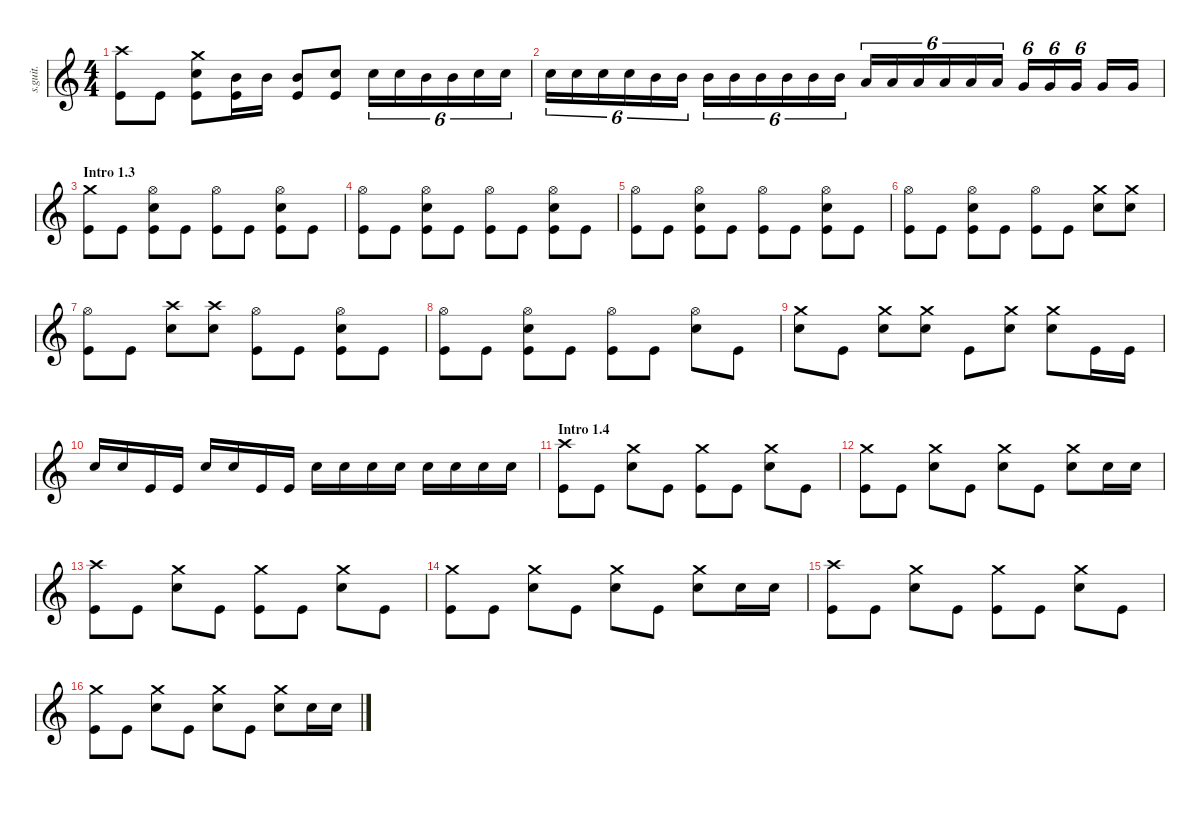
\defaultSystemsLayout 4
\hideDynamics
\bracketExtendMode nobrackets
\track ("Joey Jordison" "s.guit.") {instrument percussion}
\staff {score}
\articulation defaults
\ts (4 4)
\tempo (192 hide)
\clef g2
\ks c
("Kick (hit)" "Crash high (hit)").8{lyrics (0 "") lyrics (1 "") lyrics (2 "") lyrics (3 "") lyrics (4 "") dy ff} "Kick (hit)".8{lyrics (0 "") lyrics (1 "") lyrics (2 "") lyrics (3 "") lyrics (4 "")} ("Snare (hit) 2" "Crash medium (hit)" "Kick (hit)").8{lyrics (0 "") lyrics (1 "") lyrics (2 "") lyrics (3 "") lyrics (4 "")} ("Mid Tom (hit)" "Kick (hit)").16{lyrics (0 "") lyrics (1 "") lyrics (2 "") lyrics (3 "") lyrics (4 "")} "Mid Tom (hit)".16{lyrics (0 "") lyrics (1 "") lyrics (2 "") lyrics (3 "") lyrics (4 "")} ("Mid Tom (hit)" "Kick (hit)").8{lyrics (0 "") lyrics (1 "") lyrics (2 "") lyrics (3 "") lyrics (4 "")} ("Kick (hit)" "Snare (hit) 2").8{lyrics (0 "") lyrics (1 "") lyrics (2 "") lyrics (3 "") lyrics (4 "")} "Snare (hit) 2".16{tu (6 4) lyrics (0 "") lyrics (1 "") lyrics (2 "") lyrics (3 "") lyrics (4 "")} "Snare (hit) 2".16{tu (6 4) lyrics (0 "") lyrics (1 "") lyrics (2 "") lyrics (3 "") lyrics (4 "")} "Mid Tom (hit)".16{tu (6 4) lyrics (0 "") lyrics (1 "") lyrics (2 "") lyrics (3 "") lyrics (4 "")} "Mid Tom (hit)".16{tu (6 4) lyrics (0 "") lyrics (1 "") lyrics (2 "") lyrics (3 "") lyrics (4 "")} "Snare (hit) 2".16{tu (6 4) lyrics (0 "") lyrics (1 "") lyrics (2 "") lyrics (3 "") lyrics (4 "")} "Snare (hit) 2".16{tu (6 4) lyrics (0 "") lyrics (1 "") lyrics (2 "") lyrics (3 "") lyrics (4 "")} |
"Snare (hit) 2".16{tu (6 4) lyrics (0 "") lyrics (1 "") lyrics (2 "") lyrics (3 "") lyrics (4 "")} "Snare (hit) 2".16{tu (6 4) lyrics (0 "") lyrics (1 "") lyrics (2 "") lyrics (3 "") lyrics (4 "")} "Snare (hit) 2".16{tu (6 4) lyrics (0 "") lyrics (1 "") lyrics (2 "") lyrics (3 "") lyrics (4 "")} "Snare (hit) 2".16{tu (6 4) lyrics (0 "") lyrics (1 "") lyrics (2 "") lyrics (3 "") lyrics (4 "")} "Mid Tom (hit)".16{tu (6 4) lyrics (0 "") lyrics (1 "") lyrics (2 "") lyrics (3 "") lyrics (4 "")} "Mid Tom (hit)".16{tu (6 4) lyrics (0 "") lyrics (1 "") lyrics (2 "") lyrics (3 "") lyrics (4 "")} "Mid Tom (hit)".16{tu (6 4) lyrics (0 "") lyrics (1 "") lyrics (2 "") lyrics (3 "") lyrics (4 "")} "Mid Tom (hit)".16{tu (6 4) lyrics (0 "") lyrics (1 "") lyrics (2 "") lyrics (3 "") lyrics (4 "")} "Mid Tom (hit)".16{tu (6 4) lyrics (0 "") lyrics (1 "") lyrics (2 "") lyrics (3 "") lyrics (4 "")} "Mid Tom (hit)".16{tu (6 4) lyrics (0 "") lyrics (1 "") lyrics (2 "") lyrics (3 "") lyrics (4 "")} "Mid Tom (hit)".16{tu (6 4) lyrics (0 "") lyrics (1 "") lyrics (2 "") lyrics (3 "") lyrics (4 "")} "Mid Tom (hit)".16{tu (6 4) lyrics (0 "") lyrics (1 "") lyrics (2 "") lyrics (3 "") lyrics (4 "")} "Low Tom (hit)".16{tu (6 4) lyrics (0 "") lyrics (1 "") lyrics (2 "") lyrics (3 "") lyrics (4 "")} "Low Tom (hit)".16{tu (6 4) lyrics (0 "") lyrics (1 "") lyrics (2 "") lyrics (3 "") lyrics (4 "")} "Low Tom (hit)".16{tu (6 4) lyrics (0 "") lyrics (1 "") lyrics (2 "") lyrics (3 "") lyrics (4 "")} "Low Tom (hit)".16{tu (6 4) lyrics (0 "") lyrics (1 "") lyrics (2 "") lyrics (3 "") lyrics (4 "")} "Low Tom (hit)".16{tu (6 4) lyrics (0 "") lyrics (1 "") lyrics (2 "") lyrics (3 "") lyrics (4 "")} "Low Tom (hit)".16{tu (6 4) lyrics (0 "") lyrics (1 "") lyrics (2 "") lyrics (3 "") lyrics (4 "")} "Very Low Tom (hit)".16{tu (6 4) lyrics (0 "") lyrics (1 "") lyrics (2 "") lyrics (3 "") lyrics (4 "")} "Very Low Tom (hit)".16{tu (6 4) lyrics (0 "") lyrics (1 "") lyrics (2 "") lyrics (3 "") lyrics (4 "")} "Very Low Tom (hit)".16{tu (6 4) lyrics (0 "") lyrics (1 "") lyrics (2 "") lyrics (3 "") lyrics (4 "")} "Very Low Tom (hit)".16{lyrics (0 "") lyrics (1 "") lyrics (2 "") lyrics (3 "") lyrics (4 "")} "Very Low Tom (hit)".16{lyrics (0 "") lyrics (1 "") lyrics (2 "") lyrics (3 "") lyrics (4 "")} |
\section ("" "Intro 1.3")
\tempo (195 hide)
("Crash medium (hit)" "Kick (hit)").8{lyrics (0 "") lyrics (1 "") lyrics (2 "") lyrics (3 "") lyrics (4 "")} "Kick (hit)".8{lyrics (0 "") lyrics (1 "") lyrics (2 "") lyrics (3 "") lyrics (4 "")} ("Hi-Hat (open)" "Snare (hit) 2" "Kick (hit)").8{lyrics (0 "") lyrics (1 "") lyrics (2 "") lyrics (3 "") lyrics (4 "")} "Kick (hit)".8{lyrics (0 "") lyrics (1 "") lyrics (2 "") lyrics (3 "") lyrics (4 "")} ("Hi-Hat (open)" "Kick (hit)").8{lyrics (0 "") lyrics (1 "") lyrics (2 "") lyrics (3 "") lyrics (4 "")} "Kick (hit)".8{lyrics (0 "") lyrics (1 "") lyrics (2 "") lyrics (3 "") lyrics (4 "")} ("Hi-Hat (open)" "Snare (hit) 2" "Kick (hit)").8{lyrics (0 "") lyrics (1 "") lyrics (2 "") lyrics (3 "") lyrics (4 "")} "Kick (hit)".8{lyrics (0 "") lyrics (1 "") lyrics (2 "") lyrics (3 "") lyrics (4 "")} |
("Hi-Hat (open)" "Kick (hit)").8{lyrics (0 "") lyrics (1 "") lyrics (2 "") lyrics (3 "") lyrics (4 "")} "Kick (hit)".8{lyrics (0 "") lyrics (1 "") lyrics (2 "") lyrics (3 "") lyrics (4 "")} ("Hi-Hat (open)" "Snare (hit) 2" "Kick (hit)").8{lyrics (0 "") lyrics (1 "") lyrics (2 "") lyrics (3 "") lyrics (4 "")} "Kick (hit)".8{lyrics (0 "") lyrics (1 "") lyrics (2 "") lyrics (3 "") lyrics (4 "")} ("Hi-Hat (open)" "Kick (hit)").8{lyrics (0 "") lyrics (1 "") lyrics (2 "") lyrics (3 "") lyrics (4 "")} "Kick (hit)".8{lyrics (0 "") lyrics (1 "") lyrics (2 "") lyrics (3 "") lyrics (4 "")} ("Hi-Hat (open)" "Snare (hit) 2" "Kick (hit)").8{lyrics (0 "") lyrics (1 "") lyrics (2 "") lyrics (3 "") lyrics (4 "")} "Kick (hit)".8{lyrics (0 "") lyrics (1 "") lyrics (2 "") lyrics (3 "") lyrics (4 "")} |
("Hi-Hat (open)" "Kick (hit)").8{lyrics (0 "") lyrics (1 "") lyrics (2 "") lyrics (3 "") lyrics (4 "")} "Kick (hit)".8{lyrics (0 "") lyrics (1 "") lyrics (2 "") lyrics (3 "") lyrics (4 "")} ("Hi-Hat (open)" "Snare (hit) 2" "Kick (hit)").8{lyrics (0 "") lyrics (1 "") lyrics (2 "") lyrics (3 "") lyrics (4 "")} "Kick (hit)".8{lyrics (0 "") lyrics (1 "") lyrics (2 "") lyrics (3 "") lyrics (4 "")} ("Hi-Hat (open)" "Kick (hit)").8{lyrics (0 "") lyrics (1 "") lyrics (2 "") lyrics (3 "") lyrics (4 "")} "Kick (hit)".8{lyrics (0 "") lyrics (1 "") lyrics (2 "") lyrics (3 "") lyrics (4 "")} ("Hi-Hat (open)" "Snare (hit) 2" "Kick (hit)").8{lyrics (0 "") lyrics (1 "") lyrics (2 "") lyrics (3 "") lyrics (4 "")} "Kick (hit)".8{lyrics (0 "") lyrics (1 "") lyrics (2 "") lyrics (3 "") lyrics (4 "")} |
\tempo (200 hide)
("Hi-Hat (open)" "Kick (hit)").8{lyrics (0 "") lyrics (1 "") lyrics (2 "") lyrics (3 "") lyrics (4 "")} "Kick (hit)".8{lyrics (0 "") lyrics (1 "") lyrics (2 "") lyrics (3 "") lyrics (4 "")} ("Hi-Hat (open)" "Snare (hit) 2" "Kick (hit)").8{lyrics (0 "") lyrics (1 "") lyrics (2 "") lyrics (3 "") lyrics (4 "")} "Kick (hit)".8{lyrics (0 "") lyrics (1 "") lyrics (2 "") lyrics (3 "") lyrics (4 "")} ("Hi-Hat (open)" "Kick (hit)").8{lyrics (0 "") lyrics (1 "") lyrics (2 "") lyrics (3 "") lyrics (4 "")} "Kick (hit)".8{lyrics (0 "") lyrics (1 "") lyrics (2 "") lyrics (3 "") lyrics (4 "")} ("Crash medium (hit)" "Snare (hit) 2").8{lyrics (0 "") lyrics (1 "") lyrics (2 "") lyrics (3 "") lyrics (4 "")} ("Crash medium (hit)" "Snare (hit) 2").8{lyrics (0 "") lyrics (1 "") lyrics (2 "") lyrics (3 "") lyrics (4 "")} |
\tempo (205 hide)
("Hi-Hat (open)" "Kick (hit)").8{lyrics (0 "") lyrics (1 "") lyrics (2 "") lyrics (3 "") lyrics (4 "")} "Kick (hit)".8{lyrics (0 "") lyrics (1 "") lyrics (2 "") lyrics (3 "") lyrics (4 "")} ("Crash high (hit)" "Snare (hit) 2").8{lyrics (0 "") lyrics (1 "") lyrics (2 "") lyrics (3 "") lyrics (4 "")} ("Crash high (hit)" "Snare (hit) 2").8{lyrics (0 "") lyrics (1 "") lyrics (2 "") lyrics (3 "") lyrics (4 "")} ("Hi-Hat (open)" "Kick (hit)").8{lyrics (0 "") lyrics (1 "") lyrics (2 "") lyrics (3 "") lyrics (4 "")} "Kick (hit)".8{lyrics (0 "") lyrics (1 "") lyrics (2 "") lyrics (3 "") lyrics (4 "")} ("Hi-Hat (open)" "Snare (hit) 2" "Kick (hit)").8{lyrics (0 "") lyrics (1 "") lyrics (2 "") lyrics (3 "") lyrics (4 "")} "Kick (hit)".8{lyrics (0 "") lyrics (1 "") lyrics (2 "") lyrics (3 "") lyrics (4 "")} |
("Hi-Hat (open)" "Kick (hit)").8{lyrics (0 "") lyrics (1 "") lyrics (2 "") lyrics (3 "") lyrics (4 "")} "Kick (hit)".8{lyrics (0 "") lyrics (1 "") lyrics (2 "") lyrics (3 "") lyrics (4 "")} ("Hi-Hat (open)" "Snare (hit) 2" "Kick (hit)").8{lyrics (0 "") lyrics (1 "") lyrics (2 "") lyrics (3 "") lyrics (4 "")} "Kick (hit)".8{lyrics (0 "") lyrics (1 "") lyrics (2 "") lyrics (3 "") lyrics (4 "")} ("Hi-Hat (open)" "Kick (hit)").8{lyrics (0 "") lyrics (1 "") lyrics (2 "") lyrics (3 "") lyrics (4 "")} "Kick (hit)".8{lyrics (0 "") lyrics (1 "") lyrics (2 "") lyrics (3 "") lyrics (4 "")} ("Hi-Hat (open)" "Snare (hit) 2").8{lyrics (0 "") lyrics (1 "") lyrics (2 "") lyrics (3 "") lyrics (4 "")} "Kick (hit)".8{lyrics (0 "") lyrics (1 "") lyrics (2 "") lyrics (3 "") lyrics (4 "")} |
("Crash medium (hit)" "Snare (hit) 2").8{lyrics (0 "") lyrics (1 "") lyrics (2 "") lyrics (3 "") lyrics (4 "")} "Kick (hit)".8{lyrics (0 "") lyrics (1 "") lyrics (2 "") lyrics (3 "") lyrics (4 "")} ("Crash medium (hit)" "Snare (hit) 2").8{lyrics (0 "") lyrics (1 "") lyrics (2 "") lyrics (3 "") lyrics (4 "")} ("Crash medium (hit)" "Snare (hit) 2").8{lyrics (0 "") lyrics (1 "") lyrics (2 "") lyrics (3 "") lyrics (4 "")} "Kick (hit)".8{lyrics (0 "") lyrics (1 "") lyrics (2 "") lyrics (3 "") lyrics (4 "")} ("Crash medium (hit)" "Snare (hit) 2").8{lyrics (0 "") lyrics (1 "") lyrics (2 "") lyrics (3 "") lyrics (4 "")} ("Crash medium (hit)" "Snare (hit) 2").8{lyrics (0 "") lyrics (1 "") lyrics (2 "") lyrics (3 "") lyrics (4 "")} "Kick (hit)".16{lyrics (0 "") lyrics (1 "") lyrics (2 "") lyrics (3 "") lyrics (4 "")} "Kick (hit)".16{lyrics (0 "") lyrics (1 "") lyrics (2 "") lyrics (3 "") lyrics (4 "")} |
"Snare (hit) 2".16{lyrics (0 "") lyrics (1 "") lyrics (2 "") lyrics (3 "") lyrics (4 "")} "Snare (hit) 2".16{lyrics (0 "") lyrics (1 "") lyrics (2 "") lyrics (3 "") lyrics (4 "")} "Kick (hit)".16{lyrics (0 "") lyrics (1 "") lyrics (2 "") lyrics (3 "") lyrics (4 "")} "Kick (hit)".16{lyrics (0 "") lyrics (1 "") lyrics (2 "") lyrics (3 "") lyrics (4 "")} "Snare (hit) 2".16{lyrics (0 "") lyrics (1 "") lyrics (2 "") lyrics (3 "") lyrics (4 "")} "Snare (hit) 2".16{lyrics (0 "") lyrics (1 "") lyrics (2 "") lyrics (3 "") lyrics (4 "")} "Kick (hit)".16{lyrics (0 "") lyrics (1 "") lyrics (2 "") lyrics (3 "") lyrics (4 "")} "Kick (hit)".16{lyrics (0 "") lyrics (1 "") lyrics (2 "") lyrics (3 "") lyrics (4 "")} "Snare (hit) 2".16{lyrics (0 "") lyrics (1 "") lyrics (2 "") lyrics (3 "") lyrics (4 "")} "Snare (hit) 2".16{lyrics (0 "") lyrics (1 "") lyrics (2 "") lyrics (3 "") lyrics (4 "")} "Snare (hit) 2".16{lyrics (0 "") lyrics (1 "") lyrics (2 "") lyrics (3 "") lyrics (4 "")} "Snare (hit) 2".16{lyrics (0 "") lyrics (1 "") lyrics (2 "") lyrics (3 "") lyrics (4 "")} "Snare (hit) 2".16{lyrics (0 "") lyrics (1 "") lyrics (2 "") lyrics (3 "") lyrics (4 "")} "Snare (hit) 2".16{lyrics (0 "") lyrics (1 "") lyrics (2 "") lyrics (3 "") lyrics (4 "")} "Snare (hit) 2".16{lyrics (0 "") lyrics (1 "") lyrics (2 "") lyrics (3 "") lyrics (4 "")} "Snare (hit) 2".16{lyrics (0 "") lyrics (1 "") lyrics (2 "") lyrics (3 "") lyrics (4 "")} |
\section ("" "Intro 1.4")
\tempo (210 hide)
("Crash high (hit)" "Kick (hit)").8{lyrics (0 "") lyrics (1 "") lyrics (2 "") lyrics (3 "") lyrics (4 "")} "Kick (hit)".8{lyrics (0 "") lyrics (1 "") lyrics (2 "") lyrics (3 "") lyrics (4 "")} ("Crash medium (hit)" "Snare (hit) 2").8{lyrics (0 "") lyrics (1 "") lyrics (2 "") lyrics (3 "") lyrics (4 "")} "Kick (hit)".8{lyrics (0 "") lyrics (1 "") lyrics (2 "") lyrics (3 "") lyrics (4 "")} ("Crash medium (hit)" "Kick (hit)").8{lyrics (0 "") lyrics (1 "") lyrics (2 "") lyrics (3 "") lyrics (4 "")} "Kick (hit)".8{lyrics (0 "") lyrics (1 "") lyrics (2 "") lyrics (3 "") lyrics (4 "")} ("Crash medium (hit)" "Snare (hit) 2").8{lyrics (0 "") lyrics (1 "") lyrics (2 "") lyrics (3 "") lyrics (4 "")} "Kick (hit)".8{lyrics (0 "") lyrics (1 "") lyrics (2 "") lyrics (3 "") lyrics (4 "")} |
("Crash medium (hit)" "Kick (hit)").8{lyrics (0 "") lyrics (1 "") lyrics (2 "") lyrics (3 "") lyrics (4 "")} "Kick (hit)".8{lyrics (0 "") lyrics (1 "") lyrics (2 "") lyrics (3 "") lyrics (4 "")} ("Crash medium (hit)" "Snare (hit) 2").8{lyrics (0 "") lyrics (1 "") lyrics (2 "") lyrics (3 "") lyrics (4 "")} "Kick (hit)".8{lyrics (0 "") lyrics (1 "") lyrics (2 "") lyrics (3 "") lyrics (4 "")} ("Crash medium (hit)" "Snare (hit) 2").8{lyrics (0 "") lyrics (1 "") lyrics (2 "") lyrics (3 "") lyrics (4 "")} "Kick (hit)".8{lyrics (0 "") lyrics (1 "") lyrics (2 "") lyrics (3 "") lyrics (4 "")} ("Crash medium (hit)" "Snare (hit) 2").8{lyrics (0 "") lyrics (1 "") lyrics (2 "") lyrics (3 "") lyrics (4 "")} "Snare (hit) 2".16{lyrics (0 "") lyrics (1 "") lyrics (2 "") lyrics (3 "") lyrics (4 "")} "Snare (hit) 2".16{lyrics (0 "") lyrics (1 "") lyrics (2 "") lyrics (3 "") lyrics (4 "")} |
("Crash high (hit)" "Kick (hit)").8{lyrics (0 "") lyrics (1 "") lyrics (2 "") lyrics (3 "") lyrics (4 "")} "Kick (hit)".8{lyrics (0 "") lyrics (1 "") lyrics (2 "") lyrics (3 "") lyrics (4 "")} ("Crash medium (hit)" "Snare (hit) 2").8{lyrics (0 "") lyrics (1 "") lyrics (2 "") lyrics (3 "") lyrics (4 "")} "Kick (hit)".8{lyrics (0 "") lyrics (1 "") lyrics (2 "") lyrics (3 "") lyrics (4 "")} ("Crash medium (hit)" "Kick (hit)").8{lyrics (0 "") lyrics (1 "") lyrics (2 "") lyrics (3 "") lyrics (4 "")} "Kick (hit)".8{lyrics (0 "") lyrics (1 "") lyrics (2 "") lyrics (3 "") lyrics (4 "")} ("Crash medium (hit)" "Snare (hit) 2").8{lyrics (0 "") lyrics (1 "") lyrics (2 "") lyrics (3 "") lyrics (4 "")} "Kick (hit)".8{lyrics (0 "") lyrics (1 "") lyrics (2 "") lyrics (3 "") lyrics (4 "")} |
("Crash medium (hit)" "Kick (hit)").8{lyrics (0 "") lyrics (1 "") lyrics (2 "") lyrics (3 "") lyrics (4 "")} "Kick (hit)".8{lyrics (0 "") lyrics (1 "") lyrics (2 "") lyrics (3 "") lyrics (4 "")} ("Crash medium (hit)" "Snare (hit) 2").8{lyrics (0 "") lyrics (1 "") lyrics (2 "") lyrics (3 "") lyrics (4 "")} "Kick (hit)".8{lyrics (0 "") lyrics (1 "") lyrics (2 "") lyrics (3 "") lyrics (4 "")} ("Crash medium (hit)" "Snare (hit) 2").8{lyrics (0 "") lyrics (1 "") lyrics (2 "") lyrics (3 "") lyrics (4 "")} "Kick (hit)".8{lyrics (0 "") lyrics (1 "") lyrics (2 "") lyrics (3 "") lyrics (4 "")} ("Crash medium (hit)" "Snare (hit) 2").8{lyrics (0 "") lyrics (1 "") lyrics (2 "") lyrics (3 "") lyrics (4 "")} "Snare (hit) 2".16{lyrics (0 "") lyrics (1 "") lyrics (2 "") lyrics (3 "") lyrics (4 "")} "Snare (hit) 2".16{lyrics (0 "") lyrics (1 "") lyrics (2 "") lyrics (3 "") lyrics (4 "")} |
("Crash high (hit)" "Kick (hit)").8{lyrics (0 "") lyrics (1 "") lyrics (2 "") lyrics (3 "") lyrics (4 "")} "Kick (hit)".8{lyrics (0 "") lyrics (1 "") lyrics (2 "") lyrics (3 "") lyrics (4 "")} ("Crash medium (hit)" "Snare (hit) 2").8{lyrics (0 "") lyrics (1 "") lyrics (2 "") lyrics (3 "") lyrics (4 "")} "Kick (hit)".8{lyrics (0 "") lyrics (1 "") lyrics (2 "") lyrics (3 "") lyrics (4 "")} ("Crash medium (hit)" "Kick (hit)").8{lyrics (0 "") lyrics (1 "") lyrics (2 "") lyrics (3 "") lyrics (4 "")} "Kick (hit)".8{lyrics (0 "") lyrics (1 "") lyrics (2 "") lyrics (3 "") lyrics (4 "")} ("Crash medium (hit)" "Snare (hit) 2").8{lyrics (0 "") lyrics (1 "") lyrics (2 "") lyrics (3 "") lyrics (4 "")} "Kick (hit)".8{lyrics (0 "") lyrics (1 "") lyrics (2 "") lyrics (3 "") lyrics (4 "")} |
("Crash medium (hit)" "Kick (hit)").8{lyrics (0 "") lyrics (1 "") lyrics (2 "") lyrics (3 "") lyrics (4 "")} "Kick (hit)".8{lyrics (0 "") lyrics (1 "") lyrics (2 "") lyrics (3 "") lyrics (4 "")} ("Crash medium (hit)" "Snare (hit) 2").8{lyrics (0 "") lyrics (1 "") lyrics (2 "") lyrics (3 "") lyrics (4 "")} "Kick (hit)".8{lyrics (0 "") lyrics (1 "") lyrics (2 "") lyrics (3 "") lyrics (4 "")} ("Crash medium (hit)" "Snare (hit) 2").8{lyrics (0 "") lyrics (1 "") lyrics (2 "") lyrics (3 "") lyrics (4 "")} "Kick (hit)".8{lyrics (0 "") lyrics (1 "") lyrics (2 "") lyrics (3 "") lyrics (4 "")} ("Crash medium (hit)" "Snare (hit) 2").8{lyrics (0 "") lyrics (1 "") lyrics (2 "") lyrics (3 "") lyrics (4 "")} "Snare (hit) 2".16{lyrics (0 "") lyrics (1 "") lyrics (2 "") lyrics (3 "") lyrics (4 "")} "Snare (hit) 2".16{lyrics (0 "") lyrics (1 "") lyrics (2 "") lyrics (3 "") lyrics (4 "")}
